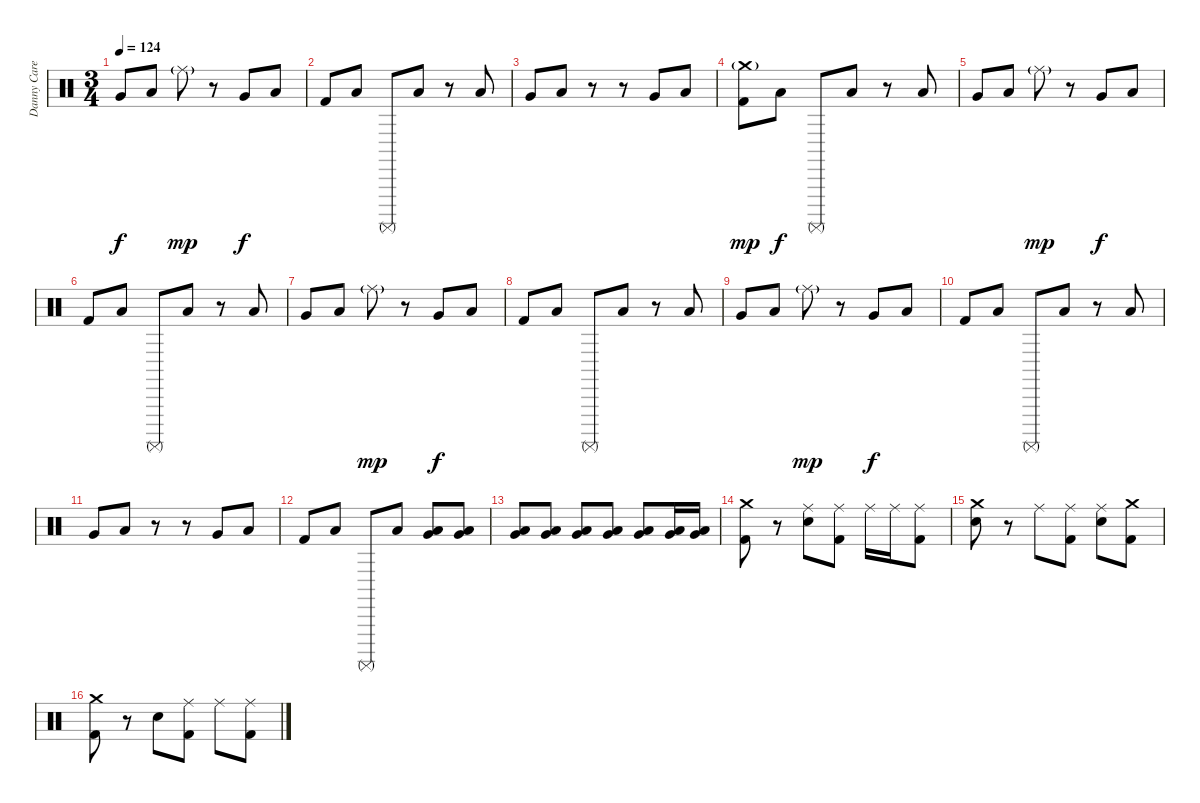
\track ("Danny Carey" "Danny Care") {instrument percussion}
\staff {score}
\articulation defaults
\ts (3 4)
\tempo 124
\clef neutral
\ks c "Very Low Tom (hit)".8{dy f} "Low Tom (hit)".8 "Ride (middle)"{g}.8{dy mp}
r.8 "Very Low Tom (hit)".8{dy f} "Low Floor Tom (hit)".8 |
"Kick (hit) 2".8 "Low Tom (hit)".8 "Surdo (mute)".8 "Low Tom (hit)".8 r.8 "Low Tom (hit)".8 |
"Very Low Tom (hit)".8 "Low Tom (hit)".8 r.8 r.8 "Very Low Tom (hit)".8 "Low Floor Tom (hit)".8 |
("Crash medium (hit)"{g} "Kick (hit) 2").8{dy mp} "Low Tom (hit)".8{dy f} "Surdo (mute)".8 "Low Tom (hit)".8 r.8 "Low Tom (hit)".8 |
"Very Low Tom (hit)".8 "Low Tom (hit)".8 "Ride (middle)"{g}.8{dy mp} r.8 "Very Low Tom (hit)".8{dy f} "Low Floor Tom (hit)".8 |
"Kick (hit) 2".8 "Low Tom (hit)".8 "Surdo (mute)".8 "Low Tom (hit)".8 r.8 "Low Tom (hit)".8 |
"Very Low Tom (hit)".8 "Low Tom (hit)".8 "Ride (middle)"{g}.8{dy mp} r.8 "Very Low Tom (hit)".8{dy f} "Low Floor Tom (hit)".8 |
"Kick (hit) 2".8 "Low Tom (hit)".8 "Surdo (mute)".8 "Low Tom (hit)".8 r.8 "Low Tom (hit)".8 |
"Very Low Tom (hit)".8 "Low Tom (hit)".8 "Ride (middle)"{g}.8{dy mp} r.8 "Very Low Tom (hit)".8{dy f} "Low Floor Tom (hit)".8 |
"Kick (hit) 2".8 "Low Tom (hit)".8 "Surdo (mute)".8 "Low Tom (hit)".8 r.8 "Low Tom (hit)".8 |
"Very Low Tom (hit)".8 "Low Tom (hit)".8 r.8 r.8 "Very Low Tom (hit)".8 "Low Floor Tom (hit)".8 |
"Kick (hit) 2".8 "Low Tom (hit)".8 "Surdo (mute)".8 "Low Tom (hit)".8 ("Very Low Tom (hit)" "Low Floor Tom (hit)").8 ("Very Low Tom (hit)" "Low Floor Tom (hit)").8 |
("Very Low Tom (hit)" "Low Floor Tom (hit)").8 ("Very Low Tom (hit)" "Low Floor Tom (hit)").8 ("Very Low Tom (hit)" "Low Floor Tom (hit)").8 ("Very Low Tom (hit)" "Low Floor Tom (hit)").8 ("Very Low Tom (hit)" "Low Floor Tom (hit)").8 ("Very Low Tom (hit)" "Low Floor Tom (hit)").16 ("Very Low Tom (hit)" "Low Floor Tom (hit)").16 |
("Crash medium (hit)" "Kick (hit) 2").8 r.8 ("Ride (middle)" "Electric Snare (hit)").8 ("Ride (middle)" "Kick (hit) 2").8 "Ride (middle)".16 "Ride (middle)".16 ("Ride (middle)" "Kick (hit) 2").8 |
("Crash medium (hit)" "Electric Snare (hit)").8 r.8 "Ride (middle)".8 ("Ride (middle)" "Kick (hit) 2").8 ("Ride (middle)" "Electric Snare (hit)").8 ("Crash medium (hit)" "Kick (hit) 2").8 |
("Crash medium (hit)" "Kick (hit) 2").8 r.8 "Electric Snare (hit)".8 ("Ride (middle)" "Kick (hit) 2").8 "Ride (middle)".8 ("Ride (middle)" "Kick (hit) 2").8
